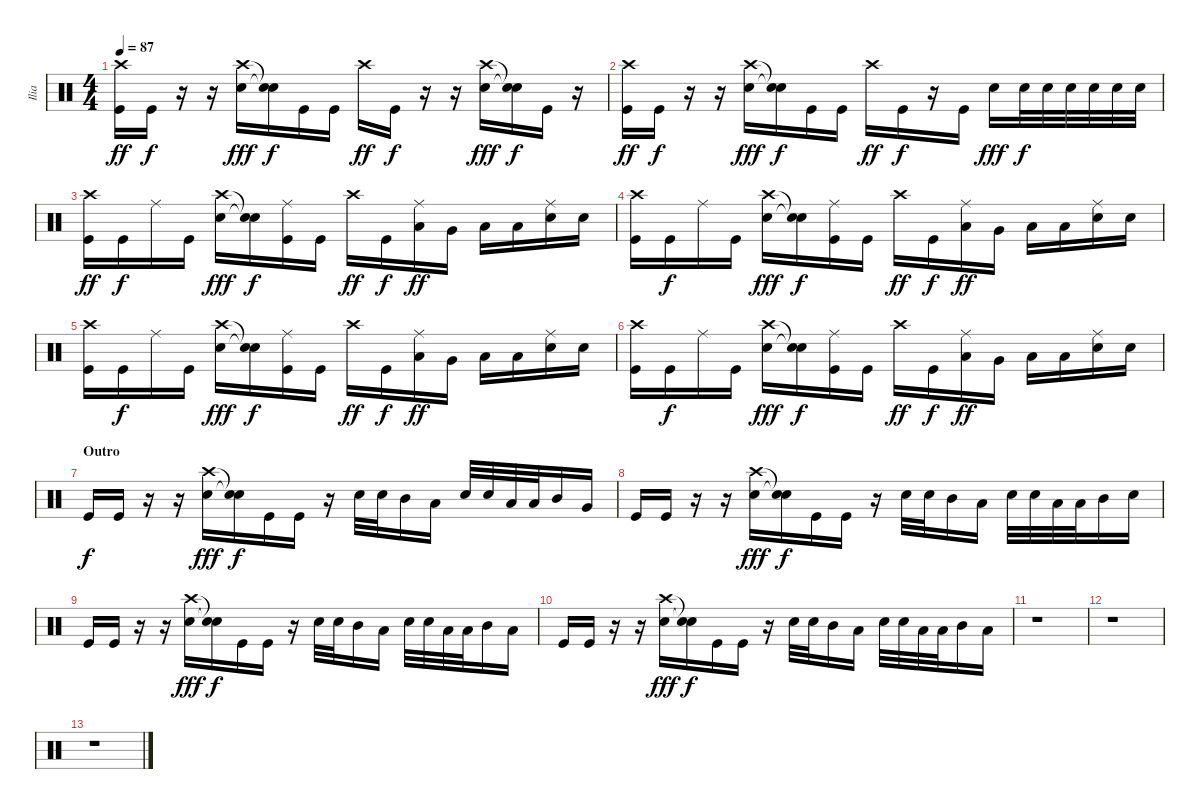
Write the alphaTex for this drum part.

\track ("Ilia" "Ilia") {instrument percussion}
\staff {score}
\articulation defaults
\ts (4 4)
\tempo 87
\clef neutral
\ks c
("Crash high (hit)" "Kick (hit)").16{dy ff} "Kick (hit)".16{dy f} r.16 r.16 ("Crash high (hit)" "Electric Snare (hit)").16{dy fff} ("Snare (hit)"{t} "Snare (hit)"{t}).16{dy f} "Kick (hit)".16 "Kick (hit)".16 "Crash high (hit)".16{dy ff} "Kick (hit)".16{dy f} r.16 r.16 ("Crash high (hit)" "Electric Snare (hit)").16{dy fff} ("Snare (hit)"{t} "Snare (hit)"{t}).16{dy f} "Kick (hit)".16 r.16 |
("Crash high (hit)" "Kick (hit)").16{dy ff} "Kick (hit)".16{dy f} r.16 r.16 ("Crash high (hit)" "Electric Snare (hit)").16{dy fff} ("Snare (hit)"{t} "Snare (hit)"{t}).16{dy f} "Kick (hit)".16 "Kick (hit)".16 "Crash high (hit)".16{dy ff} "Kick (hit)".16{dy f} r.16 "Kick (hit)".16 "Electric Snare (hit)".16{dy fff} "Electric Snare (hit)".32{dy f} "Electric Snare (hit)".32 "Electric Snare (hit)".32 "Electric Snare (hit)".32 "Electric Snare (hit)".32 "Electric Snare (hit)".32 |
("Crash high (hit)" "Kick (hit)").16{dy ff} "Kick (hit)".16{dy f} "Ride (middle)".16 "Kick (hit)".16 ("Crash high (hit)" "Electric Snare (hit)").16{dy fff} ("Snare (hit)"{t} "Snare (hit)"{t}).16{dy f} ("Ride (middle)" "Kick (hit)").16 "Kick (hit)".16 "Crash high (hit)".16{dy ff} "Kick (hit)".16{dy f} ("Ride (middle)" "Low Tom (hit)").16{dy ff} "Very Low Tom (hit)".16 "Low Floor Tom (hit)".16 "Low Floor Tom (hit)".16 ("Ride (middle)" "Electric Snare (hit)").16 "Electric Snare (hit)".16 |
("Crash high (hit)" "Kick (hit)").16 "Kick (hit)".16{dy f} "Ride (middle)".16 "Kick (hit)".16 ("Crash high (hit)" "Electric Snare (hit)").16{dy fff} ("Snare (hit)"{t} "Snare (hit)"{t}).16{dy f} ("Ride (middle)" "Kick (hit)").16 "Kick (hit)".16 "Crash high (hit)".16{dy ff} "Kick (hit)".16{dy f} ("Ride (middle)" "Low Tom (hit)").16{dy ff} "Very Low Tom (hit)".16 "Low Floor Tom (hit)".16 "Low Floor Tom (hit)".16 ("Ride (middle)" "Electric Snare (hit)").16 "Electric Snare (hit)".16 |
("Crash high (hit)" "Kick (hit)").16 "Kick (hit)".16{dy f} "Ride (middle)".16 "Kick (hit)".16 ("Crash high (hit)" "Electric Snare (hit)").16{dy fff} ("Snare (hit)"{t} "Snare (hit)"{t}).16{dy f} ("Ride (middle)" "Kick (hit)").16 "Kick (hit)".16 "Crash high (hit)".16{dy ff} "Kick (hit)".16{dy f} ("Ride (middle)" "Low Tom (hit)").16{dy ff} "Very Low Tom (hit)".16 "Low Floor Tom (hit)".16 "Low Floor Tom (hit)".16 ("Ride (middle)" "Electric Snare (hit)").16 "Electric Snare (hit)".16 |
("Crash high (hit)" "Kick (hit)").16 "Kick (hit)".16{dy f} "Ride (middle)".16 "Kick (hit)".16 ("Crash high (hit)" "Electric Snare (hit)").16{dy fff} ("Snare (hit)"{t} "Snare (hit)"{t}).16{dy f} ("Ride (middle)" "Kick (hit)").16 "Kick (hit)".16 "Crash high (hit)".16{dy ff} "Kick (hit)".16{dy f} ("Ride (middle)" "Low Tom (hit)").16{dy ff} "Very Low Tom (hit)".16 "Low Floor Tom (hit)".16 "Low Floor Tom (hit)".16 ("Ride (middle)" "Electric Snare (hit)").16 "Electric Snare (hit)".16 |
\section ("" "Outro")
"Kick (hit)".16{dy f} "Kick (hit)".16 r.16 r.16 ("Crash high (hit)" "Electric Snare (hit)").16{dy fff} ("Snare (hit)"{t} "Snare (hit)"{t}).16{dy f} "Kick (hit)".16 "Kick (hit)".16 r.16 "Electric Snare (hit)".32 "Electric Snare (hit)".32 "Mid Tom (hit)".16 "Low Tom (hit)".16 "Electric Snare (hit)".32 "Electric Snare (hit)".32 "Low Tom (hit)".32 "Low Tom (hit)".32 "Mid Tom (hit)".16 "Very Low Tom (hit)".16 |
"Kick (hit)".16 "Kick (hit)".16 r.16 r.16 ("Crash high (hit)" "Electric Snare (hit)").16{dy fff} ("Snare (hit)"{t} "Snare (hit)"{t}).16{dy f} "Kick (hit)".16 "Kick (hit)".16 r.16 "Electric Snare (hit)".32 "Electric Snare (hit)".32 "Mid Tom (hit)".16 "Low Tom (hit)".16 "Electric Snare (hit)".32 "Electric Snare (hit)".32 "Low Tom (hit)".32 "Low Tom (hit)".32 "Mid Tom (hit)".16 "Electric Snare (hit)".16 |
"Kick (hit)".16 "Kick (hit)".16 r.16 r.16 ("Crash high (hit)" "Electric Snare (hit)").16{dy fff} ("Snare (hit)"{t} "Snare (hit)"{t}).16{dy f} "Kick (hit)".16 "Kick (hit)".16 r.16 "Electric Snare (hit)".32 "Electric Snare (hit)".32 "Mid Tom (hit)".16 "Low Tom (hit)".16 "Electric Snare (hit)".32 "Electric Snare (hit)".32 "Low Tom (hit)".32 "Low Tom (hit)".32 "Mid Tom (hit)".16 "Low Tom (hit)".16 |
"Kick (hit)".16 "Kick (hit)".16 r.16 r.16 ("Crash high (hit)" "Electric Snare (hit)").16{dy fff} ("Snare (hit)"{t} "Snare (hit)"{t}).16{dy f} "Kick (hit)".16 "Kick (hit)".16 r.16 "Electric Snare (hit)".32 "Electric Snare (hit)".32 "Mid Tom (hit)".16 "Low Tom (hit)".16 "Electric Snare (hit)".32 "Electric Snare (hit)".32 "Low Tom (hit)".32 "Low Tom (hit)".32 "Mid Tom (hit)".16 "Low Floor Tom (hit)".16 |
r.1 |
r.1 |
r.1
